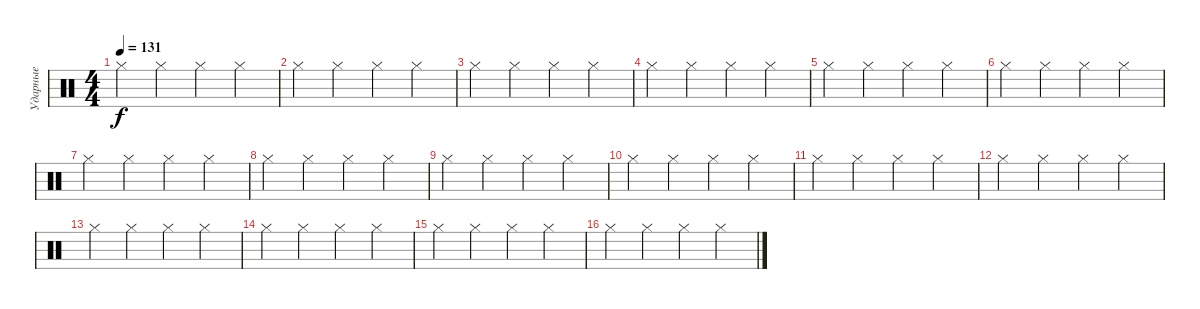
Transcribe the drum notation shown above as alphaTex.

\track ("Ударные" "Ударные") {instrument percussion}
\staff {score}
\articulation defaults
\ts (4 4)
\tempo 131
\clef neutral
\ks c "Hi-Hat (closed)".4{dy f} "Hi-Hat (closed)".4 "Hi-Hat (closed)".4 "Hi-Hat (closed)".4
|
"Hi-Hat (closed)".4 "Hi-Hat (closed)".4 "Hi-Hat (closed)".4 "Hi-Hat (closed)".4 |
"Hi-Hat (closed)".4 "Hi-Hat (closed)".4 "Hi-Hat (closed)".4 "Hi-Hat (closed)".4 |
"Hi-Hat (closed)".4 "Hi-Hat (closed)".4 "Hi-Hat (closed)".4 "Hi-Hat (closed)".4 |
"Hi-Hat (closed)".4 "Hi-Hat (closed)".4 "Hi-Hat (closed)".4 "Hi-Hat (closed)".4 |
"Hi-Hat (closed)".4 "Hi-Hat (closed)".4 "Hi-Hat (closed)".4 "Hi-Hat (closed)".4 |
"Hi-Hat (closed)".4 "Hi-Hat (closed)".4 "Hi-Hat (closed)".4 "Hi-Hat (closed)".4 |
"Hi-Hat (closed)".4 "Hi-Hat (closed)".4 "Hi-Hat (closed)".4 "Hi-Hat (closed)".4 |
"Hi-Hat (closed)".4 "Hi-Hat (closed)".4 "Hi-Hat (closed)".4 "Hi-Hat (closed)".4 |
"Hi-Hat (closed)".4 "Hi-Hat (closed)".4 "Hi-Hat (closed)".4 "Hi-Hat (closed)".4 |
"Hi-Hat (closed)".4 "Hi-Hat (closed)".4 "Hi-Hat (closed)".4 "Hi-Hat (closed)".4 |
"Hi-Hat (closed)".4 "Hi-Hat (closed)".4 "Hi-Hat (closed)".4 "Hi-Hat (closed)".4 |
"Hi-Hat (closed)".4 "Hi-Hat (closed)".4 "Hi-Hat (closed)".4 "Hi-Hat (closed)".4 |
"Hi-Hat (closed)".4 "Hi-Hat (closed)".4 "Hi-Hat (closed)".4 "Hi-Hat (closed)".4 |
"Hi-Hat (closed)".4 "Hi-Hat (closed)".4 "Hi-Hat (closed)".4 "Hi-Hat (closed)".4 |
"Hi-Hat (closed)".4 "Hi-Hat (closed)".4 "Hi-Hat (closed)".4 "Hi-Hat (closed)".4
